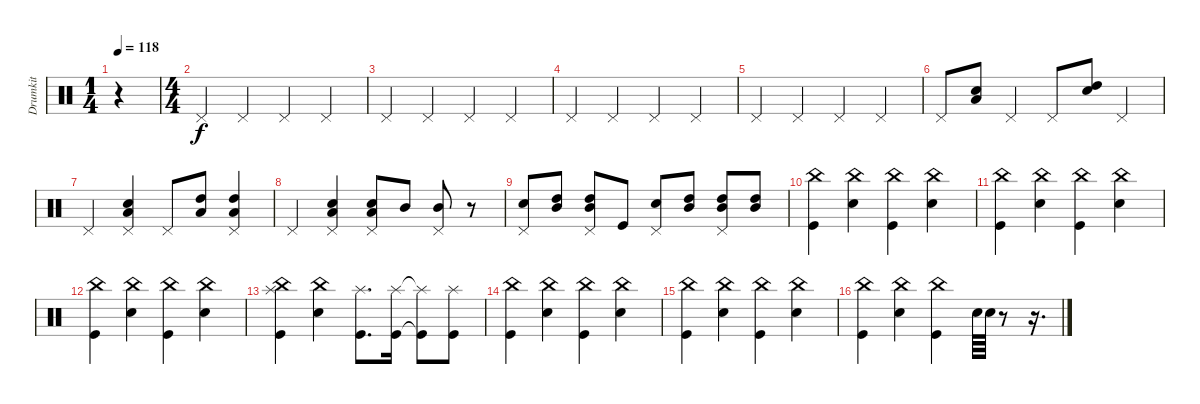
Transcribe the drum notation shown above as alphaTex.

\track ("Drumkit" "Drumkit") {instrument percussion}
\staff {score}
\articulation defaults
\ts (1 4)
\tempo 118
\clef neutral
\ks c
r.4{dy f} |
\ts (4 4)
"Pedal Hi-Hat (hit)".4 "Pedal Hi-Hat (hit)".4 "Pedal Hi-Hat (hit)".4 "Pedal Hi-Hat (hit)".4 |
"Pedal Hi-Hat (hit)".4 "Pedal Hi-Hat (hit)".4 "Pedal Hi-Hat (hit)".4 "Pedal Hi-Hat (hit)".4 |
"Pedal Hi-Hat (hit)".4 "Pedal Hi-Hat (hit)".4 "Pedal Hi-Hat (hit)".4 "Pedal Hi-Hat (hit)".4 |
"Pedal Hi-Hat (hit)".4 "Pedal Hi-Hat (hit)".4 "Pedal Hi-Hat (hit)".4 "Pedal Hi-Hat (hit)".4 |
"Pedal Hi-Hat (hit)".8 ("Snare (hit) 2" "Low Floor Tom (hit)").8 "Pedal Hi-Hat (hit)".4 "Pedal Hi-Hat (hit)".8 ("High Tom (hit)" "Snare (hit) 2").8 "Pedal Hi-Hat (hit)".4 |
"Pedal Hi-Hat (hit)".4 ("Pedal Hi-Hat (hit)" "Snare (hit) 2" "Low Floor Tom (hit)").4 "Pedal Hi-Hat (hit)".8 ("High Tom (hit)" "Low Tom (hit)").8 ("Pedal Hi-Hat (hit)" "High Tom (hit)" "Low Tom (hit)").4 |
"Pedal Hi-Hat (hit)".4 ("Pedal Hi-Hat (hit)" "Snare (hit) 2" "Low Floor Tom (hit)").4 ("Pedal Hi-Hat (hit)" "Snare (hit) 2" "Low Floor Tom (hit)").8 "Mid Tom (hit)".8 ("Pedal Hi-Hat (hit)" "Mid Tom (hit)").8 r.8 |
("Pedal Hi-Hat (hit)" "Snare (hit) 2").8 ("Mid Tom (hit)" "High Tom (hit)").8 ("Pedal Hi-Hat (hit)" "Mid Tom (hit)" "High Tom (hit)").8 "Kick (hit)".8 ("Pedal Hi-Hat (hit)" "Snare (hit) 2").8 ("Mid Tom (hit)" "High Tom (hit)").8 ("Pedal Hi-Hat (hit)" "Mid Tom (hit)" "High Tom (hit)").8 ("Mid Tom (hit)" "High Tom (hit)").8 |
("China (hit)" "Kick (hit)").4 ("China (hit)" "Snare (hit) 2").4 ("China (hit)" "Kick (hit)").4 ("China (hit)" "Snare (hit) 2").4 |
("China (hit)" "Kick (hit)").4 ("China (hit)" "Snare (hit) 2").4 ("China (hit)" "Kick (hit)").4 ("China (hit)" "Snare (hit) 2").4 |
("China (hit)" "Kick (hit)").4 ("China (hit)" "Snare (hit) 2").4 ("China (hit)" "Kick (hit)").4 ("China (hit)" "Snare (hit) 2").4 |
("China (hit)" "Kick (hit)" "Splash (hit)").4 ("China (hit)" "Snare (hit) 2").4 ("Kick (hit)" "Splash (hit)").8{d} ("Kick (hit)" "Splash (hit)").16 ("Kick (hit)"{t} "Splash (hit)"{t}).8 ("Kick (hit)" "Splash (hit)").8 |
("China (hit)" "Kick (hit)").4 ("China (hit)" "Snare (hit) 2").4 ("China (hit)" "Kick (hit)").4 ("China (hit)" "Snare (hit) 2").4 |
("China (hit)" "Kick (hit)").4 ("China (hit)" "Snare (hit) 2").4 ("China (hit)" "Kick (hit)").4 ("China (hit)" "Snare (hit) 2").4 |
("China (hit)" "Kick (hit)").4 ("China (hit)" "Snare (hit) 2").4 ("China (hit)" "Kick (hit)").4 "Snare (hit) 2".64 "Snare (hit) 2".64 r.8 r.16{d}
